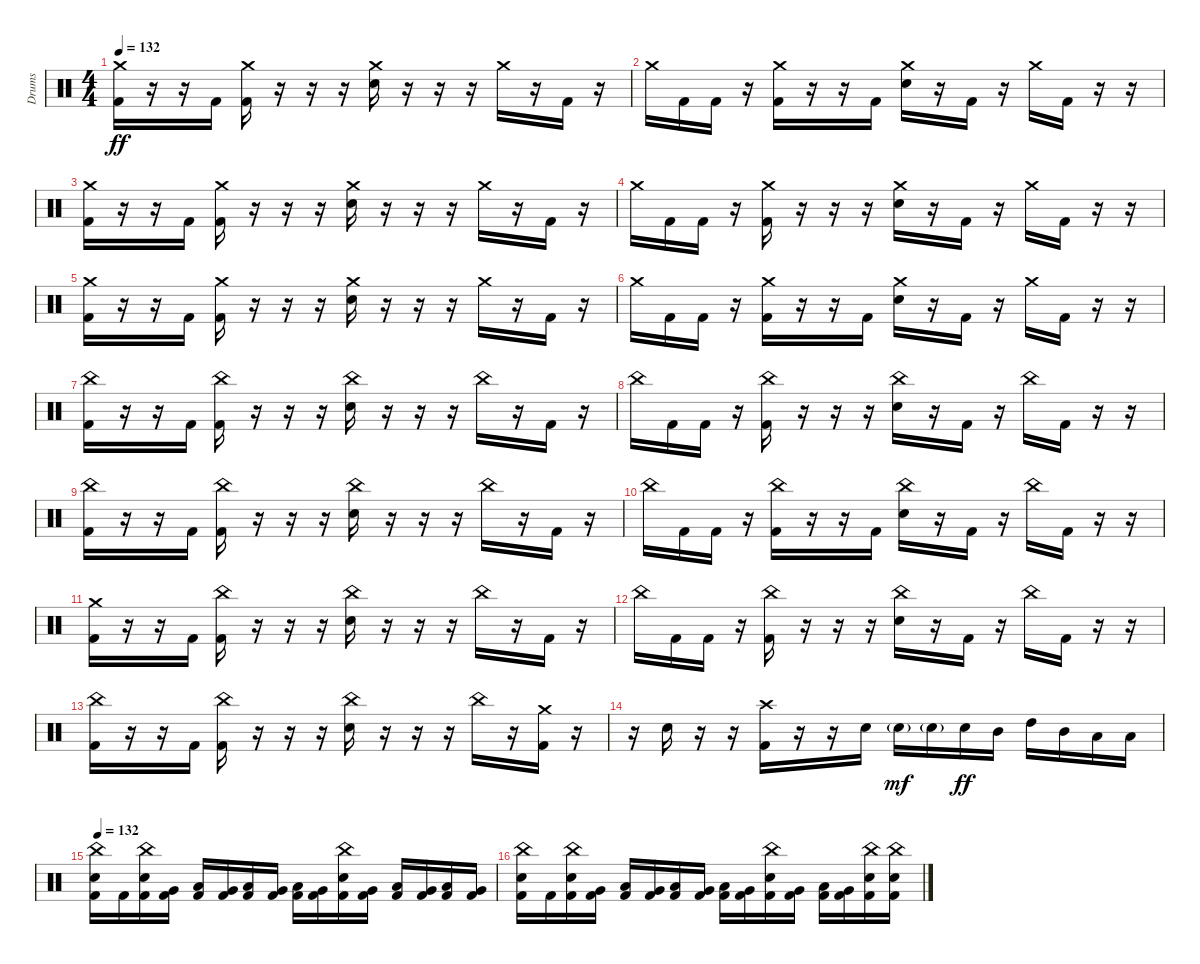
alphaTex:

\track ("Drums" "Drums") {instrument percussion}
\staff {score}
\articulation defaults
\ts (4 4)
\tempo 132
\clef neutral
\ks c
("Crash medium (hit)" "Kick (hit) 2").16{dy ff} r.16 r.16 "Kick (hit) 2".16 ("Crash medium (hit)" "Kick (hit) 2").16 r.16 r.16 r.16 ("Crash medium (hit)" "Electric Snare (hit)").16 r.16 r.16 r.16 "Crash medium (hit)".16 r.16 "Kick (hit) 2".16 r.16 |
"Crash medium (hit)".16 "Kick (hit) 2".16 "Kick (hit) 2".16 r.16 ("Crash medium (hit)" "Kick (hit) 2").16 r.16 r.16 "Kick (hit) 2".16 ("Crash medium (hit)" "Electric Snare (hit)").16 r.16 "Kick (hit) 2".16 r.16 "Crash medium (hit)".16 "Kick (hit) 2".16 r.16 r.16 |
("Crash medium (hit)" "Kick (hit) 2").16 r.16 r.16 "Kick (hit) 2".16 ("Crash medium (hit)" "Kick (hit) 2").16 r.16 r.16 r.16 ("Crash medium (hit)" "Electric Snare (hit)").16 r.16 r.16 r.16 "Crash medium (hit)".16 r.16 "Kick (hit) 2".16 r.16 |
"Crash medium (hit)".16 "Kick (hit) 2".16 "Kick (hit) 2".16 r.16 ("Crash medium (hit)" "Kick (hit) 2").16 r.16 r.16 r.16 ("Crash medium (hit)" "Electric Snare (hit)").16 r.16 "Kick (hit) 2".16 r.16 "Crash medium (hit)".16 "Kick (hit) 2".16 r.16 r.16 |
("Crash medium (hit)" "Kick (hit) 2").16 r.16 r.16 "Kick (hit) 2".16 ("Crash medium (hit)" "Kick (hit) 2").16 r.16 r.16 r.16 ("Crash medium (hit)" "Electric Snare (hit)").16 r.16 r.16 r.16 "Crash medium (hit)".16 r.16 "Kick (hit) 2".16 r.16 |
"Crash medium (hit)".16 "Kick (hit) 2".16 "Kick (hit) 2".16 r.16 ("Crash medium (hit)" "Kick (hit) 2").16 r.16 r.16 "Kick (hit) 2".16 ("Crash medium (hit)" "Electric Snare (hit)").16 r.16 "Kick (hit) 2".16 r.16 "Crash medium (hit)".16 "Kick (hit) 2".16 r.16 r.16 |
("China (hit)" "Kick (hit) 2").16 r.16 r.16 "Kick (hit) 2".16 ("China (hit)" "Kick (hit) 2").16 r.16 r.16 r.16 ("China (hit)" "Electric Snare (hit)").16 r.16 r.16 r.16 "China (hit)".16 r.16 "Kick (hit) 2".16 r.16 |
"China (hit)".16 "Kick (hit) 2".16 "Kick (hit) 2".16 r.16 ("China (hit)" "Kick (hit) 2").16 r.16 r.16 r.16 ("China (hit)" "Electric Snare (hit)").16 r.16 "Kick (hit) 2".16 r.16 "China (hit)".16 "Kick (hit) 2".16 r.16 r.16 |
("China (hit)" "Kick (hit) 2").16 r.16 r.16 "Kick (hit) 2".16 ("China (hit)" "Kick (hit) 2").16 r.16 r.16 r.16 ("China (hit)" "Electric Snare (hit)").16 r.16 r.16 r.16 "China (hit)".16 r.16 "Kick (hit) 2".16 r.16 |
"China (hit)".16 "Kick (hit) 2".16 "Kick (hit) 2".16 r.16 ("China (hit)" "Kick (hit) 2").16 r.16 r.16 "Kick (hit) 2".16 ("China (hit)" "Electric Snare (hit)").16 r.16 "Kick (hit) 2".16 r.16 "China (hit)".16 "Kick (hit) 2".16 r.16 r.16 |
("Crash medium (hit)" "Kick (hit) 2").16 r.16 r.16 "Kick (hit) 2".16 ("China (hit)" "Kick (hit) 2").16 r.16 r.16 r.16 ("China (hit)" "Electric Snare (hit)").16 r.16 r.16 r.16 "China (hit)".16 r.16 "Kick (hit) 2".16 r.16 |
"China (hit)".16 "Kick (hit) 2".16 "Kick (hit) 2".16 r.16 ("China (hit)" "Kick (hit) 2").16 r.16 r.16 r.16 ("China (hit)" "Electric Snare (hit)").16 r.16 "Kick (hit) 2".16 r.16 "China (hit)".16 "Kick (hit) 2".16 r.16 r.16 |
("China (hit)" "Kick (hit) 2").16 r.16 r.16 "Kick (hit) 2".16 ("China (hit)" "Kick (hit) 2").16 r.16 r.16 r.16 ("China (hit)" "Electric Snare (hit)").16 r.16 r.16 r.16 "China (hit)".16 r.16 ("Crash medium (hit)" "Kick (hit) 2").16 r.16 |
r.16 "Electric Snare (hit)".16 r.16 r.16 ("Crash high (hit)" "Kick (hit) 2").16 r.16 r.16 "Electric Snare (hit)".16 "Electric Snare (hit)"{g}.16{dy mf} "Electric Snare (hit)"{g}.16 "Electric Snare (hit)".16{dy ff} "Mid Tom (hit)".16 "High Tom (hit)".16 "Mid Tom (hit)".16 "Low Tom (hit)".16 "Low Floor Tom (hit)".16 |
\tempo 132
("China (hit)" "Electric Snare (hit)" "Kick (hit) 2").16 "Kick (hit) 2".16 ("China (hit)" "Electric Snare (hit)" "Kick (hit) 2").16 ("Very Low Tom (hit)" "Kick (hit) 2").16 ("Low Tom (hit)" "Kick (hit) 2").16 ("Very Low Tom (hit)" "Kick (hit) 2").16 ("Low Tom (hit)" "Kick (hit) 2").16 ("Very Low Tom (hit)" "Kick (hit) 2").16 ("Low Tom (hit)" "Kick (hit) 2").16 ("Very Low Tom (hit)" "Kick (hit) 2").16 ("China (hit)" "Electric Snare (hit)" "Kick (hit) 2").16 ("Very Low Tom (hit)" "Kick (hit) 2").16 ("Low Tom (hit)" "Kick (hit) 2").16 ("Very Low Tom (hit)" "Kick (hit) 2").16 ("Low Tom (hit)" "Kick (hit) 2").16 ("Very Low Tom (hit)" "Kick (hit) 2").16 |
("China (hit)" "Electric Snare (hit)" "Kick (hit) 2").16 "Kick (hit) 2".16 ("China (hit)" "Electric Snare (hit)" "Kick (hit) 2").16 ("Very Low Tom (hit)" "Kick (hit) 2").16 ("Low Tom (hit)" "Kick (hit) 2").16 ("Very Low Tom (hit)" "Kick (hit) 2").16 ("Low Tom (hit)" "Kick (hit) 2").16 ("Very Low Tom (hit)" "Kick (hit) 2").16 ("Low Tom (hit)" "Kick (hit) 2").16 ("Very Low Tom (hit)" "Kick (hit) 2").16 ("China (hit)" "Electric Snare (hit)" "Kick (hit) 2").16 ("Very Low Tom (hit)" "Kick (hit) 2").16 ("Low Tom (hit)" "Kick (hit) 2").16 ("Very Low Tom (hit)" "Kick (hit) 2").16 ("China (hit)" "Electric Snare (hit)" "Kick (hit) 2").16 ("China (hit)" "Electric Snare (hit)" "Kick (hit) 2").16
